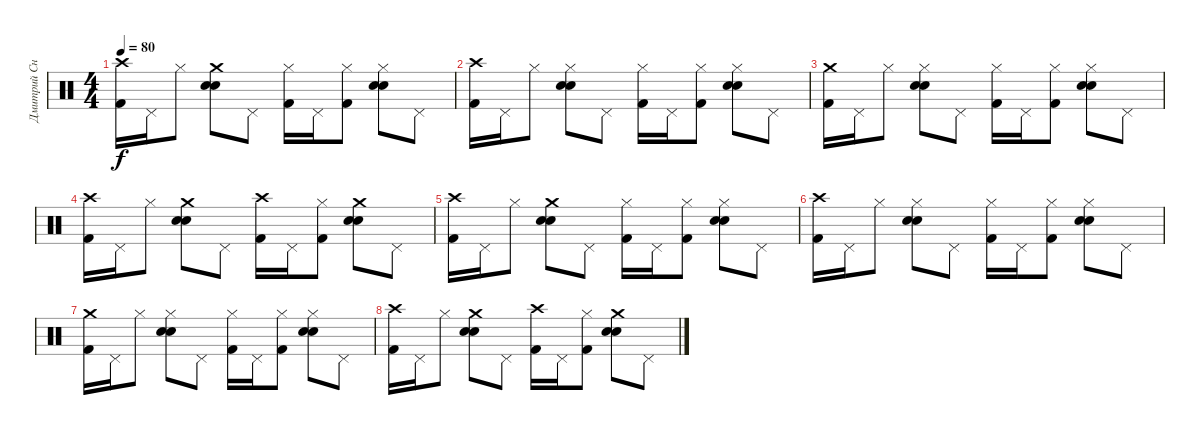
\track ("Дмитрий Снэйк" "Дмитрий Сн") {instrument percussion}
\staff {score}
\articulation defaults
\ts (4 4)
\tempo 80
\clef neutral
\ks c
("Crash high (hit)" "Kick (hit) 2").16{dy f} "Pedal Hi-Hat (hit)".16 "Hi-Hat (closed)".8 ("Crash medium (hit)" "Electric Snare (hit)" "Snare (hit) 2").8 "Pedal Hi-Hat (hit)".8 ("Hi-Hat (closed)" "Kick (hit) 2").16 "Pedal Hi-Hat (hit)".16 ("Hi-Hat (closed)" "Kick (hit) 2").8 ("Hi-Hat (closed)" "Electric Snare (hit)" "Snare (hit) 2").8 "Pedal Hi-Hat (hit)".8 |
("Crash high (hit)" "Kick (hit) 2").16 "Pedal Hi-Hat (hit)".16 "Hi-Hat (closed)".8 ("Hi-Hat (closed)" "Electric Snare (hit)" "Snare (hit) 2").8 "Pedal Hi-Hat (hit)".8 ("Hi-Hat (closed)" "Kick (hit) 2").16 "Pedal Hi-Hat (hit)".16 ("Hi-Hat (closed)" "Kick (hit) 2").8 ("Hi-Hat (closed)" "Electric Snare (hit)" "Snare (hit) 2").8 "Pedal Hi-Hat (hit)".8 |
("Crash medium (hit)" "Kick (hit) 2").16 "Pedal Hi-Hat (hit)".16 "Hi-Hat (closed)".8 ("Hi-Hat (closed)" "Electric Snare (hit)" "Snare (hit) 2").8 "Pedal Hi-Hat (hit)".8 ("Hi-Hat (closed)" "Kick (hit) 2").16 "Pedal Hi-Hat (hit)".16 ("Hi-Hat (closed)" "Kick (hit) 2").8 ("Hi-Hat (closed)" "Electric Snare (hit)" "Snare (hit) 2").8 "Pedal Hi-Hat (hit)".8 |
("Crash high (hit)" "Kick (hit) 2").16 "Pedal Hi-Hat (hit)".16 "Hi-Hat (closed)".8 ("Crash medium (hit)" "Electric Snare (hit)" "Snare (hit) 2").8 "Pedal Hi-Hat (hit)".8 ("Crash high (hit)" "Kick (hit) 2").16 "Pedal Hi-Hat (hit)".16 ("Hi-Hat (closed)" "Kick (hit) 2").8 ("Crash medium (hit)" "Electric Snare (hit)" "Snare (hit) 2").8 "Pedal Hi-Hat (hit)".8 |
("Crash high (hit)" "Kick (hit) 2").16 "Pedal Hi-Hat (hit)".16 "Hi-Hat (closed)".8 ("Crash medium (hit)" "Electric Snare (hit)" "Snare (hit) 2").8 "Pedal Hi-Hat (hit)".8 ("Hi-Hat (closed)" "Kick (hit) 2").16 "Pedal Hi-Hat (hit)".16 ("Hi-Hat (closed)" "Kick (hit) 2").8 ("Hi-Hat (closed)" "Electric Snare (hit)" "Snare (hit) 2").8 "Pedal Hi-Hat (hit)".8 |
("Crash high (hit)" "Kick (hit) 2").16 "Pedal Hi-Hat (hit)".16 "Hi-Hat (closed)".8 ("Hi-Hat (closed)" "Electric Snare (hit)" "Snare (hit) 2").8 "Pedal Hi-Hat (hit)".8 ("Hi-Hat (closed)" "Kick (hit) 2").16 "Pedal Hi-Hat (hit)".16 ("Hi-Hat (closed)" "Kick (hit) 2").8 ("Hi-Hat (closed)" "Electric Snare (hit)" "Snare (hit) 2").8 "Pedal Hi-Hat (hit)".8 |
("Crash medium (hit)" "Kick (hit) 2").16 "Pedal Hi-Hat (hit)".16 "Hi-Hat (closed)".8 ("Hi-Hat (closed)" "Electric Snare (hit)" "Snare (hit) 2").8 "Pedal Hi-Hat (hit)".8 ("Hi-Hat (closed)" "Kick (hit) 2").16 "Pedal Hi-Hat (hit)".16 ("Hi-Hat (closed)" "Kick (hit) 2").8 ("Hi-Hat (closed)" "Electric Snare (hit)" "Snare (hit) 2").8 "Pedal Hi-Hat (hit)".8 |
("Crash high (hit)" "Kick (hit) 2").16 "Pedal Hi-Hat (hit)".16 "Hi-Hat (closed)".8 ("Crash medium (hit)" "Electric Snare (hit)" "Snare (hit) 2").8 "Pedal Hi-Hat (hit)".8 ("Crash high (hit)" "Kick (hit) 2").16 "Pedal Hi-Hat (hit)".16 ("Hi-Hat (closed)" "Kick (hit) 2").8 ("Crash medium (hit)" "Electric Snare (hit)" "Snare (hit) 2").8 "Pedal Hi-Hat (hit)".8
